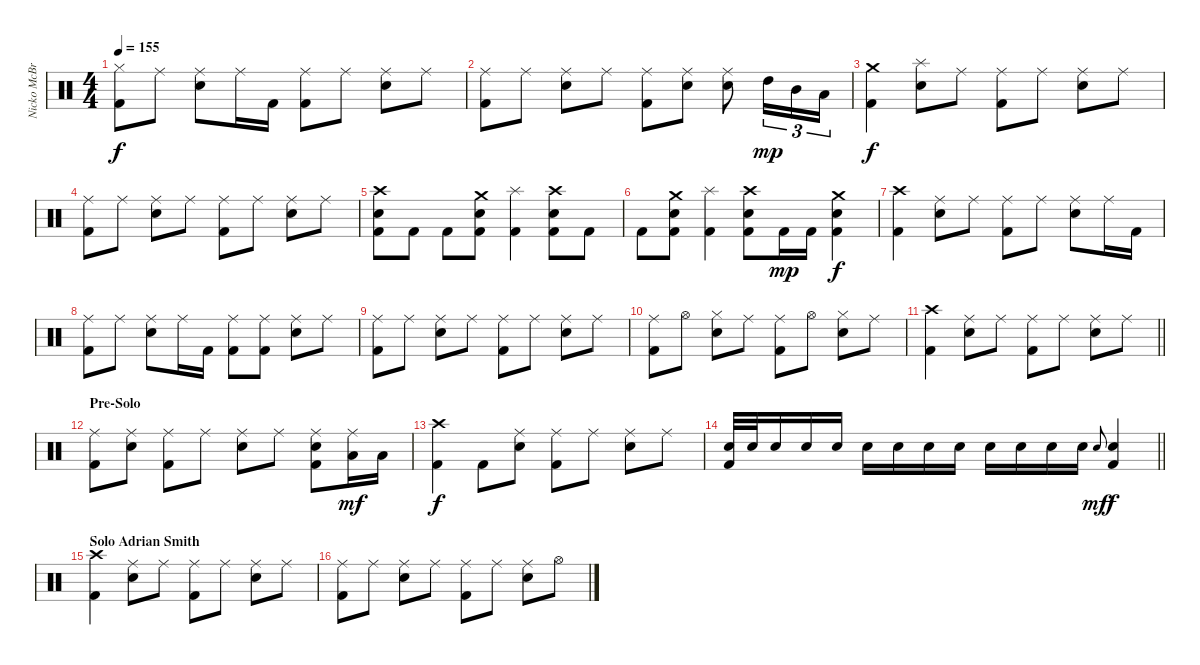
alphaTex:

\track ("Nicko McBrain" "Nicko McBr") {instrument percussion}
\staff {score}
\articulation defaults
\ts (4 4)
\tempo 155
\clef neutral
\ks c
("Hi-Hat (closed)" "Kick (hit) 2").8{dy f} "Ride (middle)".8 ("Ride (middle)" "Snare (hit) 2").8 "Ride (middle)".16 "Kick (hit) 2".16 ("Ride (middle)" "Kick (hit) 2").8 "Ride (middle)".8 ("Ride (middle)" "Snare (hit) 2").8 "Ride (middle)".8 |
("Ride (middle)" "Kick (hit) 2").8 "Ride (middle)".8 ("Ride (middle)" "Snare (hit) 2").8 "Ride (middle)".8 ("Ride (middle)" "Kick (hit) 2").8 ("Ride (middle)" "Snare (hit) 2").8 ("Ride (middle)" "Snare (hit) 2").8 "High Tom (hit)".16{tu (3 2) dy mp} "Mid Tom (hit)".16{tu (3 2)} "Low Tom (hit)".16{tu (3 2)} |
("Crash medium (hit)" "Kick (hit) 2").4{dy f} ("Snare (hit) 2" "Splash (hit)").8 "Ride (middle)".8 ("Ride (middle)" "Kick (hit) 2").8 "Ride (middle)".8 ("Ride (middle)" "Snare (hit) 2").8 "Ride (middle)".8 |
("Ride (middle)" "Kick (hit) 2").8 "Ride (middle)".8 ("Ride (middle)" "Snare (hit) 2").8 "Ride (middle)".8 ("Ride (middle)" "Kick (hit) 2").8 "Ride (middle)".8 ("Ride (middle)" "Snare (hit) 2").8 "Ride (middle)".8 |
("Snare (hit) 2" "Crash high (hit)" "Kick (hit) 2").8 "Kick (hit) 2".8 "Kick (hit) 2".8 ("Snare (hit) 2" "Crash medium (hit)" "Kick (hit) 2").8 ("Splash (hit)" "Kick (hit) 2").4 ("Snare (hit) 2" "Crash high (hit)" "Kick (hit) 2").8 "Kick (hit) 2".8 |
"Kick (hit) 2".8 ("Snare (hit) 2" "Crash medium (hit)" "Kick (hit) 2").8 ("Splash (hit)" "Kick (hit) 2").4 ("Snare (hit) 2" "Crash high (hit)" "Kick (hit) 2").8 "Kick (hit) 2".16{dy mp} "Kick (hit) 2".16 ("Snare (hit) 2" "Crash medium (hit)" "Kick (hit) 2").4{dy f} |
("Crash high (hit)" "Kick (hit) 2").4 ("Ride (middle)" "Snare (hit) 2").8 "Ride (middle)".8 ("Ride (middle)" "Kick (hit) 2").8 "Ride (middle)".8 ("Ride (middle)" "Snare (hit) 2").8 "Ride (middle)".16 "Kick (hit) 2".16 |
("Ride (middle)" "Kick (hit) 2").8 "Ride (middle)".8 ("Ride (middle)" "Snare (hit) 2").8 "Ride (middle)".16 "Kick (hit) 2".16 ("Ride (middle)" "Kick (hit) 2").8 ("Ride (middle)" "Kick (hit) 2").8 ("Ride (middle)" "Snare (hit) 2").8 "Ride (middle)".8 |
("Ride (middle)" "Kick (hit) 2").8 "Ride (middle)".8 ("Ride (middle)" "Snare (hit) 2").8 "Ride (middle)".8 ("Ride (middle)" "Kick (hit) 2").8 "Ride (middle)".8 ("Ride (middle)" "Snare (hit) 2").8 "Ride (middle)".8 |
("Ride (middle)" "Kick (hit) 2").8 "Hi-Hat (open)".8 ("Hi-Hat (closed)" "Snare (hit) 2").8 "Ride (middle)".8 ("Ride (middle)" "Kick (hit) 2").8 "Hi-Hat (open)".8 ("Hi-Hat (closed)" "Snare (hit) 2").8 "Ride (middle)".8 |
\barLineRight lightlight
("Crash high (hit)" "Kick (hit) 2").4 ("Ride (middle)" "Snare (hit) 2").8 "Ride (middle)".8 ("Ride (middle)" "Kick (hit) 2").8 "Ride (middle)".8 ("Ride (middle)" "Snare (hit) 2").8 "Ride (middle)".8 |
\section ("" "Pre-Solo")
("Ride (middle)" "Kick (hit) 2").8 ("Ride (middle)" "Snare (hit) 2").8 ("Ride (middle)" "Kick (hit) 2").8 "Ride (middle)".8 ("Ride (middle)" "Snare (hit) 2").8 "Ride (middle)".8 ("Ride (middle)" "Snare (hit) 2" "Kick (hit) 2").8 ("Ride (middle)" "Low Floor Tom (hit)").16{dy mf} "Low Floor Tom (hit)".16 |
("Crash high (hit)" "Kick (hit) 2").4{dy f} "Kick (hit) 2".8 ("Ride (middle)" "Snare (hit) 2").8 ("Ride (middle)" "Kick (hit) 2").8 "Ride (middle)".8 ("Ride (middle)" "Snare (hit) 2").8 "Ride (middle)".8 |
\barLineRight lightlight
("Snare (hit) 2" "Kick (hit) 2").32 "Snare (hit) 2".32 "Snare (hit) 2".16 "Snare (hit) 2".16 "Snare (hit) 2".16 "Snare (hit) 2".16 "Snare (hit) 2".16 "Snare (hit) 2".16 "Snare (hit) 2".16 "Snare (hit) 2".16 "Snare (hit) 2".16 "Snare (hit) 2".16 "Snare (hit) 2".16 "Snare (hit) 2".8{gr onbeat dy mf} ("Snare (hit) 2" "Kick (hit) 2").4{dy f} |
\section ("" "Solo Adrian Smith")
("Crash high (hit)" "Kick (hit) 2").4 ("Ride (middle)" "Snare (hit) 2").8 "Ride (middle)".8 ("Ride (middle)" "Kick (hit) 2").8 "Ride (middle)".8 ("Ride (middle)" "Snare (hit) 2").8 "Ride (middle)".8 |
("Ride (middle)" "Kick (hit) 2").8 "Ride (middle)".8 ("Ride (middle)" "Snare (hit) 2").8 "Ride (middle)".8 ("Ride (middle)" "Kick (hit) 2").8 "Ride (middle)".8 ("Ride (middle)" "Snare (hit) 2").8 "Hi-Hat (open)".8
